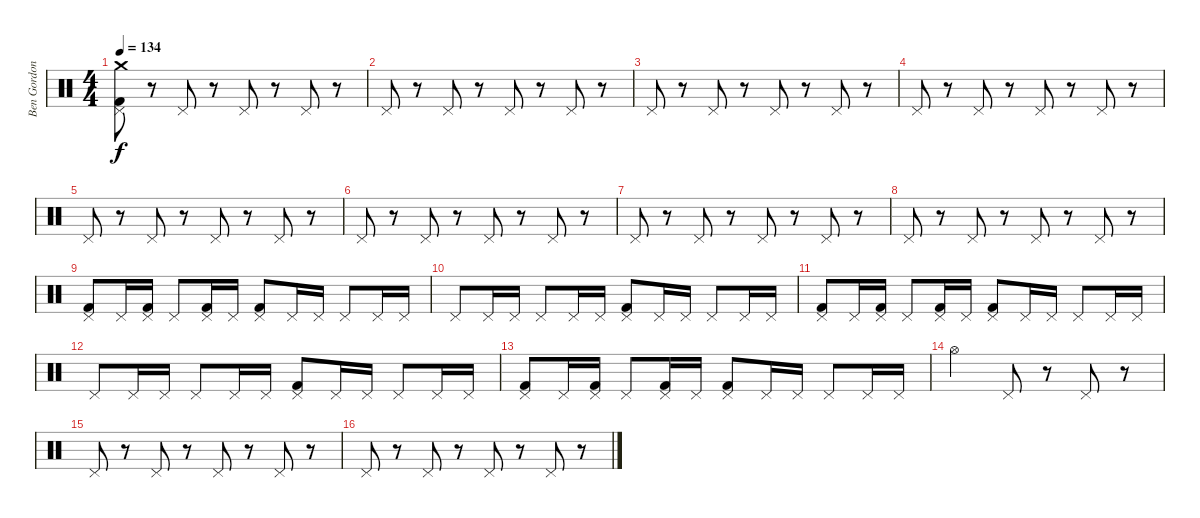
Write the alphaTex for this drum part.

\track ("Ben Gordon" "Ben Gordon") {instrument percussion}
\staff {score}
\articulation defaults
\ts (4 4)
\tempo 134
\clef neutral
\ks c
("Crash medium (hit)" "Pedal Hi-Hat (hit)" "Kick (hit) 2").8{dy f} r.8 "Pedal Hi-Hat (hit)".8 r.8 "Pedal Hi-Hat (hit)".8 r.8 "Pedal Hi-Hat (hit)".8 r.8 |
"Pedal Hi-Hat (hit)".8 r.8 "Pedal Hi-Hat (hit)".8 r.8 "Pedal Hi-Hat (hit)".8 r.8 "Pedal Hi-Hat (hit)".8 r.8 |
"Pedal Hi-Hat (hit)".8 r.8 "Pedal Hi-Hat (hit)".8 r.8 "Pedal Hi-Hat (hit)".8 r.8 "Pedal Hi-Hat (hit)".8 r.8 |
"Pedal Hi-Hat (hit)".8 r.8 "Pedal Hi-Hat (hit)".8 r.8 "Pedal Hi-Hat (hit)".8 r.8 "Pedal Hi-Hat (hit)".8 r.8 |
"Pedal Hi-Hat (hit)".8 r.8 "Pedal Hi-Hat (hit)".8 r.8 "Pedal Hi-Hat (hit)".8 r.8 "Pedal Hi-Hat (hit)".8 r.8 |
"Pedal Hi-Hat (hit)".8 r.8 "Pedal Hi-Hat (hit)".8 r.8 "Pedal Hi-Hat (hit)".8 r.8 "Pedal Hi-Hat (hit)".8 r.8 |
"Pedal Hi-Hat (hit)".8 r.8 "Pedal Hi-Hat (hit)".8 r.8 "Pedal Hi-Hat (hit)".8 r.8 "Pedal Hi-Hat (hit)".8 r.8 |
"Pedal Hi-Hat (hit)".8 r.8 "Pedal Hi-Hat (hit)".8 r.8 "Pedal Hi-Hat (hit)".8 r.8 "Pedal Hi-Hat (hit)".8 r.8 |
("Pedal Hi-Hat (hit)" "Kick (hit) 2").8 "Pedal Hi-Hat (hit)".16 ("Pedal Hi-Hat (hit)" "Kick (hit) 2").16 "Pedal Hi-Hat (hit)".8 ("Pedal Hi-Hat (hit)" "Kick (hit) 2").16 "Pedal Hi-Hat (hit)".16 ("Pedal Hi-Hat (hit)" "Kick (hit) 2").8 "Pedal Hi-Hat (hit)".16 "Pedal Hi-Hat (hit)".16 "Pedal Hi-Hat (hit)".8 "Pedal Hi-Hat (hit)".16 "Pedal Hi-Hat (hit)".16 |
"Pedal Hi-Hat (hit)".8 "Pedal Hi-Hat (hit)".16 "Pedal Hi-Hat (hit)".16 "Pedal Hi-Hat (hit)".8 "Pedal Hi-Hat (hit)".16 "Pedal Hi-Hat (hit)".16 ("Pedal Hi-Hat (hit)" "Kick (hit) 2").8 "Pedal Hi-Hat (hit)".16 "Pedal Hi-Hat (hit)".16 "Pedal Hi-Hat (hit)".8 "Pedal Hi-Hat (hit)".16 "Pedal Hi-Hat (hit)".16 |
("Pedal Hi-Hat (hit)" "Kick (hit) 2").8 "Pedal Hi-Hat (hit)".16 ("Pedal Hi-Hat (hit)" "Kick (hit) 2").16 "Pedal Hi-Hat (hit)".8 ("Pedal Hi-Hat (hit)" "Kick (hit) 2").16 "Pedal Hi-Hat (hit)".16 ("Pedal Hi-Hat (hit)" "Kick (hit) 2").8 "Pedal Hi-Hat (hit)".16 "Pedal Hi-Hat (hit)".16 "Pedal Hi-Hat (hit)".8 "Pedal Hi-Hat (hit)".16 "Pedal Hi-Hat (hit)".16 |
"Pedal Hi-Hat (hit)".8 "Pedal Hi-Hat (hit)".16 "Pedal Hi-Hat (hit)".16 "Pedal Hi-Hat (hit)".8 "Pedal Hi-Hat (hit)".16 "Pedal Hi-Hat (hit)".16 ("Pedal Hi-Hat (hit)" "Kick (hit) 2").8 "Pedal Hi-Hat (hit)".16 "Pedal Hi-Hat (hit)".16 "Pedal Hi-Hat (hit)".8 "Pedal Hi-Hat (hit)".16 "Pedal Hi-Hat (hit)".16 |
("Pedal Hi-Hat (hit)" "Kick (hit) 2").8 "Pedal Hi-Hat (hit)".16 ("Pedal Hi-Hat (hit)" "Kick (hit) 2").16 "Pedal Hi-Hat (hit)".8 ("Pedal Hi-Hat (hit)" "Kick (hit) 2").16 "Pedal Hi-Hat (hit)".16 ("Pedal Hi-Hat (hit)" "Kick (hit) 2").8 "Pedal Hi-Hat (hit)".16 "Pedal Hi-Hat (hit)".16 "Pedal Hi-Hat (hit)".8 "Pedal Hi-Hat (hit)".16 "Pedal Hi-Hat (hit)".16 |
"Hi-Hat (open)".2 "Pedal Hi-Hat (hit)".8 r.8 "Pedal Hi-Hat (hit)".8 r.8 |
"Pedal Hi-Hat (hit)".8 r.8 "Pedal Hi-Hat (hit)".8 r.8 "Pedal Hi-Hat (hit)".8 r.8 "Pedal Hi-Hat (hit)".8 r.8 |
"Pedal Hi-Hat (hit)".8 r.8 "Pedal Hi-Hat (hit)".8 r.8 "Pedal Hi-Hat (hit)".8 r.8 "Pedal Hi-Hat (hit)".8 r.8
